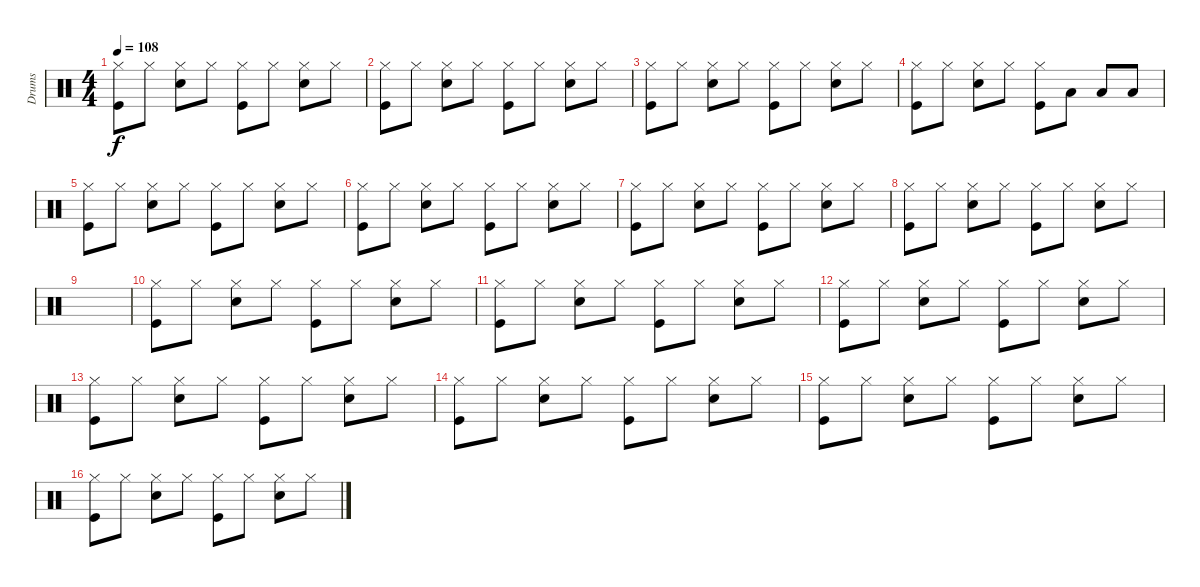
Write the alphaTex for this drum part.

\track ("Drums" "Drums") {instrument percussion}
\staff {score}
\articulation defaults
\ts (4 4)
\tempo 108
\clef neutral
\ks c
("Kick (hit)" "Hi-Hat (closed)").8{dy f} "Hi-Hat (closed)".8 ("Snare (hit) 2" "Hi-Hat (closed)").8 "Hi-Hat (closed)".8 ("Kick (hit)" "Hi-Hat (closed)").8 "Hi-Hat (closed)".8 ("Hi-Hat (closed)" "Snare (hit) 2").8 "Hi-Hat (closed)".8 |
("Kick (hit)" "Hi-Hat (closed)").8 "Hi-Hat (closed)".8 ("Snare (hit) 2" "Hi-Hat (closed)").8 "Hi-Hat (closed)".8 ("Kick (hit)" "Hi-Hat (closed)").8 "Hi-Hat (closed)".8 ("Hi-Hat (closed)" "Snare (hit) 2").8 "Hi-Hat (closed)".8 |
("Kick (hit)" "Hi-Hat (closed)").8 "Hi-Hat (closed)".8 ("Snare (hit) 2" "Hi-Hat (closed)").8 "Hi-Hat (closed)".8 ("Kick (hit)" "Hi-Hat (closed)").8 "Hi-Hat (closed)".8 ("Hi-Hat (closed)" "Snare (hit) 2").8 "Hi-Hat (closed)".8 |
("Kick (hit)" "Hi-Hat (closed)").8 "Hi-Hat (closed)".8 ("Snare (hit) 2" "Hi-Hat (closed)").8 "Hi-Hat (closed)".8 ("Kick (hit)" "Hi-Hat (closed)").8 "Low Floor Tom (hit)".8 "Low Floor Tom (hit)".8 "Low Floor Tom (hit)".8 |
("Kick (hit)" "Hi-Hat (closed)").8 "Hi-Hat (closed)".8 ("Snare (hit) 2" "Hi-Hat (closed)").8 "Hi-Hat (closed)".8 ("Kick (hit)" "Hi-Hat (closed)").8 "Hi-Hat (closed)".8 ("Hi-Hat (closed)" "Snare (hit) 2").8 "Hi-Hat (closed)".8 |
("Kick (hit)" "Hi-Hat (closed)").8 "Hi-Hat (closed)".8 ("Snare (hit) 2" "Hi-Hat (closed)").8 "Hi-Hat (closed)".8 ("Kick (hit)" "Hi-Hat (closed)").8 "Hi-Hat (closed)".8 ("Hi-Hat (closed)" "Snare (hit) 2").8 "Hi-Hat (closed)".8 |
("Kick (hit)" "Hi-Hat (closed)").8 "Hi-Hat (closed)".8 ("Snare (hit) 2" "Hi-Hat (closed)").8 "Hi-Hat (closed)".8 ("Kick (hit)" "Hi-Hat (closed)").8 "Hi-Hat (closed)".8 ("Hi-Hat (closed)" "Snare (hit) 2").8 "Hi-Hat (closed)".8 |
("Kick (hit)" "Hi-Hat (closed)").8 "Hi-Hat (closed)".8 ("Snare (hit) 2" "Hi-Hat (closed)").8 "Hi-Hat (closed)".8 ("Kick (hit)" "Hi-Hat (closed)").8 "Hi-Hat (closed)".8 ("Hi-Hat (closed)" "Snare (hit) 2").8 "Hi-Hat (closed)".8 |
|
("Kick (hit)" "Hi-Hat (closed)").8 "Hi-Hat (closed)".8 ("Snare (hit) 2" "Hi-Hat (closed)").8 "Hi-Hat (closed)".8 ("Kick (hit)" "Hi-Hat (closed)").8 "Hi-Hat (closed)".8 ("Hi-Hat (closed)" "Snare (hit) 2").8 "Hi-Hat (closed)".8 |
("Kick (hit)" "Hi-Hat (closed)").8 "Hi-Hat (closed)".8 ("Snare (hit) 2" "Hi-Hat (closed)").8 "Hi-Hat (closed)".8 ("Kick (hit)" "Hi-Hat (closed)").8 "Hi-Hat (closed)".8 ("Hi-Hat (closed)" "Snare (hit) 2").8 "Hi-Hat (closed)".8 |
("Kick (hit)" "Hi-Hat (closed)").8 "Hi-Hat (closed)".8 ("Snare (hit) 2" "Hi-Hat (closed)").8 "Hi-Hat (closed)".8 ("Kick (hit)" "Hi-Hat (closed)").8 "Hi-Hat (closed)".8 ("Hi-Hat (closed)" "Snare (hit) 2").8 "Hi-Hat (closed)".8 |
("Kick (hit)" "Hi-Hat (closed)").8 "Hi-Hat (closed)".8 ("Snare (hit) 2" "Hi-Hat (closed)").8 "Hi-Hat (closed)".8 ("Kick (hit)" "Hi-Hat (closed)").8 "Hi-Hat (closed)".8 ("Hi-Hat (closed)" "Snare (hit) 2").8 "Hi-Hat (closed)".8 |
("Kick (hit)" "Hi-Hat (closed)").8 "Hi-Hat (closed)".8 ("Snare (hit) 2" "Hi-Hat (closed)").8 "Hi-Hat (closed)".8 ("Kick (hit)" "Hi-Hat (closed)").8 "Hi-Hat (closed)".8 ("Hi-Hat (closed)" "Snare (hit) 2").8 "Hi-Hat (closed)".8 |
("Kick (hit)" "Hi-Hat (closed)").8 "Hi-Hat (closed)".8 ("Snare (hit) 2" "Hi-Hat (closed)").8 "Hi-Hat (closed)".8 ("Kick (hit)" "Hi-Hat (closed)").8 "Hi-Hat (closed)".8 ("Hi-Hat (closed)" "Snare (hit) 2").8 "Hi-Hat (closed)".8 |
("Kick (hit)" "Hi-Hat (closed)").8 "Hi-Hat (closed)".8 ("Snare (hit) 2" "Hi-Hat (closed)").8 "Hi-Hat (closed)".8 ("Kick (hit)" "Hi-Hat (closed)").8 "Hi-Hat (closed)".8 ("Hi-Hat (closed)" "Snare (hit) 2").8 "Hi-Hat (closed)".8
